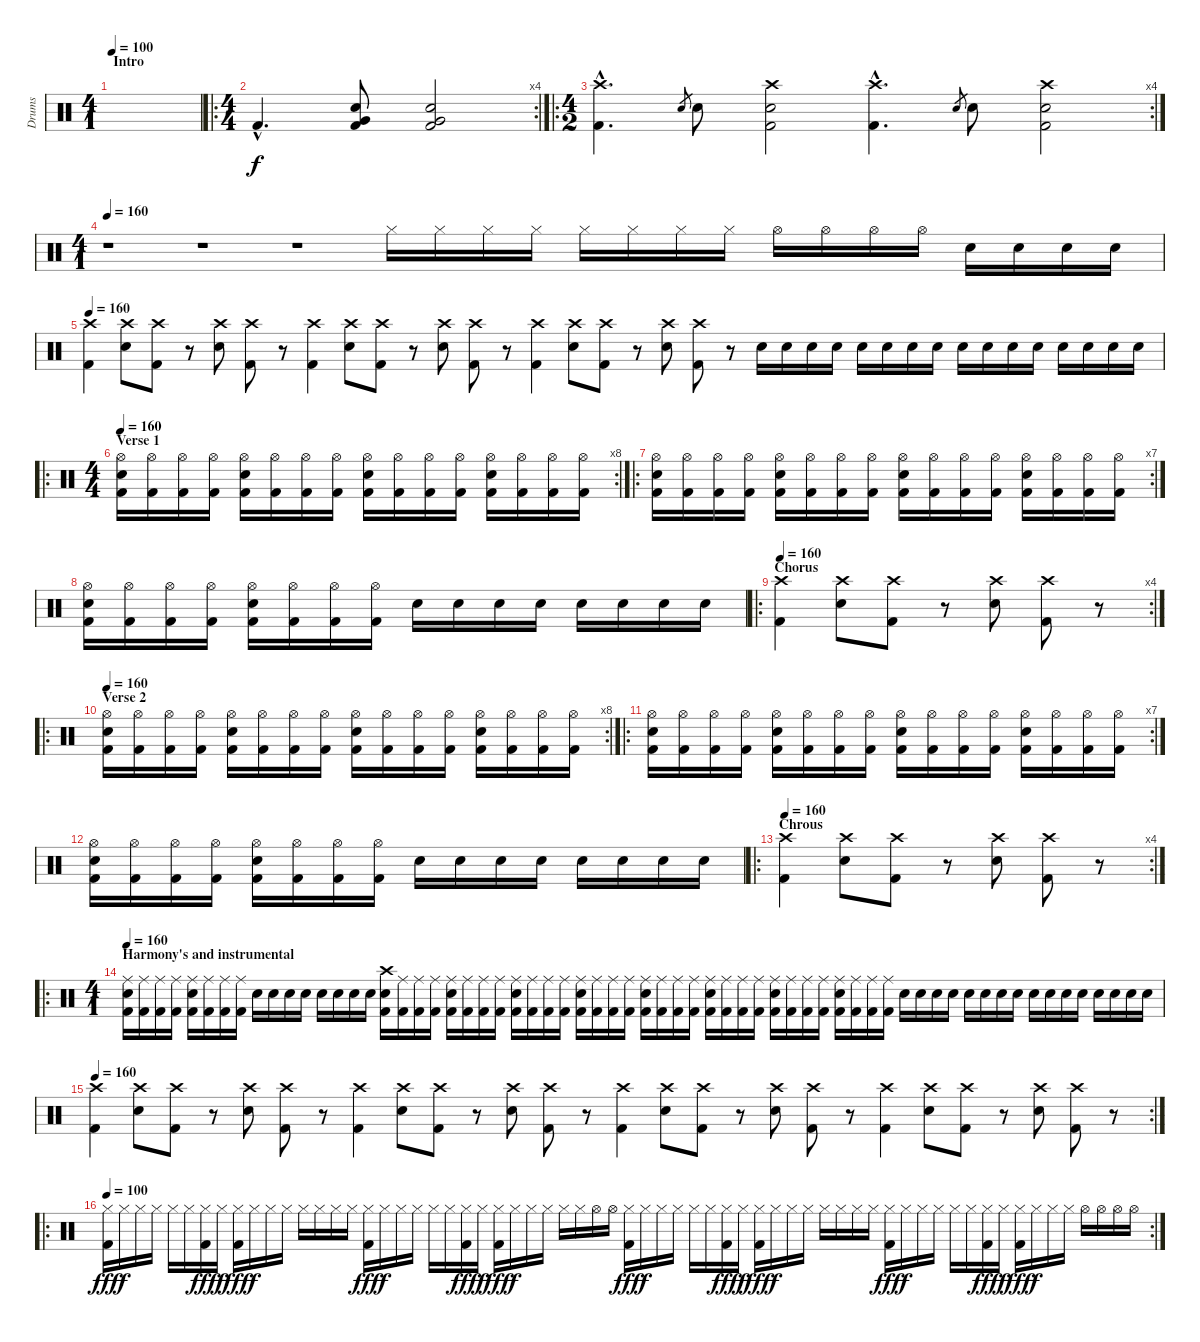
\track ("Drums" "Drums") {instrument percussion}
\staff {score}
\articulation defaults
\ts (4 1)
\section ("" "Intro")
\tempo 100
\clef neutral
\ks c
|
\ro
\rc 4
\ts (4 4)
"Kick (hit) 2"{hac}.4{d} ("Very Low Tom (hit)" "Electric Snare (hit)" "Kick (hit) 2").8 ("Very Low Tom (hit)" "Electric Snare (hit)" "Kick (hit) 2").2 |
\ro
\rc 4
\ts (4 2)
("Crash high (hit)"{hac} "Kick (hit) 2"{hac}).4{d} "Electric Snare (hit)".8{gr} "Electric Snare (hit)".8 ("Crash high (hit)" "Kick (hit) 2" "Electric Snare (hit)").2 ("Crash high (hit)"{hac} "Kick (hit) 2"{hac}).4{d} "Electric Snare (hit)".8{gr} "Electric Snare (hit)".8 ("Crash high (hit)" "Kick (hit) 2" "Electric Snare (hit)").2 |
\ts (4 1)
\tempo 160
r.1 r.1 r.1 "Hi-Hat (closed)".16 "Hi-Hat (closed)".16 "Hi-Hat (closed)".16 "Hi-Hat (closed)".16 "Hi-Hat (closed)".16 "Hi-Hat (closed)".16 "Hi-Hat (closed)".16 "Hi-Hat (closed)".16 "Hi-Hat (open)".16 "Hi-Hat (open)".16 "Hi-Hat (open)".16 "Hi-Hat (open)".16 "Electric Snare (hit)".16 "Electric Snare (hit)".16 "Electric Snare (hit)".16 "Electric Snare (hit)".16 |
\tempo 160
("Crash high (hit)" "Kick (hit) 2").4 ("Crash high (hit)" "Electric Snare (hit)").8 ("Crash high (hit)" "Kick (hit) 2").8 r.8 ("Crash high (hit)" "Electric Snare (hit)").8 ("Crash high (hit)" "Kick (hit) 2").8 r.8 ("Crash high (hit)" "Kick (hit) 2").4 ("Crash high (hit)" "Electric Snare (hit)").8 ("Crash high (hit)" "Kick (hit) 2").8 r.8 ("Crash high (hit)" "Electric Snare (hit)").8 ("Crash high (hit)" "Kick (hit) 2").8 r.8 ("Crash high (hit)" "Kick (hit) 2").4 ("Crash high (hit)" "Electric Snare (hit)").8 ("Crash high (hit)" "Kick (hit) 2").8 r.8 ("Crash high (hit)" "Electric Snare (hit)").8 ("Crash high (hit)" "Kick (hit) 2").8 r.8 "Electric Snare (hit)".16 "Electric Snare (hit)".16 "Electric Snare (hit)".16 "Electric Snare (hit)".16 "Electric Snare (hit)".16 "Electric Snare (hit)".16 "Electric Snare (hit)".16 "Electric Snare (hit)".16 "Electric Snare (hit)".16 "Electric Snare (hit)".16 "Electric Snare (hit)".16 "Electric Snare (hit)".16 "Electric Snare (hit)".16 "Electric Snare (hit)".16 "Electric Snare (hit)".16 "Electric Snare (hit)".16 |
\ro
\rc 8
\ts (4 4)
\section ("" "Verse 1")
\tempo 160
("Kick (hit) 2" "Hi-Hat (open)" "Electric Snare (hit)").16 ("Kick (hit) 2" "Hi-Hat (open)").16 ("Kick (hit) 2" "Hi-Hat (open)").16 ("Kick (hit) 2" "Hi-Hat (open)").16 ("Kick (hit) 2" "Hi-Hat (open)" "Electric Snare (hit)").16 ("Kick (hit) 2" "Hi-Hat (open)").16 ("Kick (hit) 2" "Hi-Hat (open)").16 ("Kick (hit) 2" "Hi-Hat (open)").16 ("Kick (hit) 2" "Hi-Hat (open)" "Electric Snare (hit)").16 ("Kick (hit) 2" "Hi-Hat (open)").16 ("Kick (hit) 2" "Hi-Hat (open)").16 ("Kick (hit) 2" "Hi-Hat (open)").16 ("Kick (hit) 2" "Hi-Hat (open)" "Electric Snare (hit)").16 ("Kick (hit) 2" "Hi-Hat (open)").16 ("Kick (hit) 2" "Hi-Hat (open)").16 ("Kick (hit) 2" "Hi-Hat (open)").16 |
\ro
\rc 7
("Kick (hit) 2" "Hi-Hat (open)" "Electric Snare (hit)").16 ("Kick (hit) 2" "Hi-Hat (open)").16 ("Kick (hit) 2" "Hi-Hat (open)").16 ("Kick (hit) 2" "Hi-Hat (open)").16 ("Kick (hit) 2" "Hi-Hat (open)" "Electric Snare (hit)").16 ("Kick (hit) 2" "Hi-Hat (open)").16 ("Kick (hit) 2" "Hi-Hat (open)").16 ("Kick (hit) 2" "Hi-Hat (open)").16 ("Kick (hit) 2" "Hi-Hat (open)" "Electric Snare (hit)").16 ("Kick (hit) 2" "Hi-Hat (open)").16 ("Kick (hit) 2" "Hi-Hat (open)").16 ("Kick (hit) 2" "Hi-Hat (open)").16 ("Kick (hit) 2" "Hi-Hat (open)" "Electric Snare (hit)").16 ("Kick (hit) 2" "Hi-Hat (open)").16 ("Kick (hit) 2" "Hi-Hat (open)").16 ("Kick (hit) 2" "Hi-Hat (open)").16 |
("Kick (hit) 2" "Hi-Hat (open)" "Electric Snare (hit)").16 ("Kick (hit) 2" "Hi-Hat (open)").16 ("Kick (hit) 2" "Hi-Hat (open)").16 ("Kick (hit) 2" "Hi-Hat (open)").16 ("Kick (hit) 2" "Hi-Hat (open)" "Electric Snare (hit)").16 ("Kick (hit) 2" "Hi-Hat (open)").16 ("Kick (hit) 2" "Hi-Hat (open)").16 ("Kick (hit) 2" "Hi-Hat (open)").16 "Electric Snare (hit)".16 "Electric Snare (hit)".16 "Electric Snare (hit)".16 "Electric Snare (hit)".16 "Electric Snare (hit)".16 "Electric Snare (hit)".16 "Electric Snare (hit)".16 "Electric Snare (hit)".16 |
\ro
\rc 4
\section ("" "Chorus ")
\tempo 160
("Crash high (hit)" "Kick (hit) 2").4 ("Crash high (hit)" "Electric Snare (hit)").8 ("Crash high (hit)" "Kick (hit) 2").8 r.8 ("Crash high (hit)" "Electric Snare (hit)").8 ("Crash high (hit)" "Kick (hit) 2").8 r.8 |
\ro
\rc 8
\section ("" "Verse 2")
\tempo 160
("Kick (hit) 2" "Hi-Hat (open)" "Electric Snare (hit)").16 ("Kick (hit) 2" "Hi-Hat (open)").16 ("Kick (hit) 2" "Hi-Hat (open)").16 ("Kick (hit) 2" "Hi-Hat (open)").16 ("Kick (hit) 2" "Hi-Hat (open)" "Electric Snare (hit)").16 ("Kick (hit) 2" "Hi-Hat (open)").16 ("Kick (hit) 2" "Hi-Hat (open)").16 ("Kick (hit) 2" "Hi-Hat (open)").16 ("Kick (hit) 2" "Hi-Hat (open)" "Electric Snare (hit)").16 ("Kick (hit) 2" "Hi-Hat (open)").16 ("Kick (hit) 2" "Hi-Hat (open)").16 ("Kick (hit) 2" "Hi-Hat (open)").16 ("Kick (hit) 2" "Hi-Hat (open)" "Electric Snare (hit)").16 ("Kick (hit) 2" "Hi-Hat (open)").16 ("Kick (hit) 2" "Hi-Hat (open)").16 ("Kick (hit) 2" "Hi-Hat (open)").16 |
\ro
\rc 7
("Kick (hit) 2" "Hi-Hat (open)" "Electric Snare (hit)").16 ("Kick (hit) 2" "Hi-Hat (open)").16 ("Kick (hit) 2" "Hi-Hat (open)").16 ("Kick (hit) 2" "Hi-Hat (open)").16 ("Kick (hit) 2" "Hi-Hat (open)" "Electric Snare (hit)").16 ("Kick (hit) 2" "Hi-Hat (open)").16 ("Kick (hit) 2" "Hi-Hat (open)").16 ("Kick (hit) 2" "Hi-Hat (open)").16 ("Kick (hit) 2" "Hi-Hat (open)" "Electric Snare (hit)").16 ("Kick (hit) 2" "Hi-Hat (open)").16 ("Kick (hit) 2" "Hi-Hat (open)").16 ("Kick (hit) 2" "Hi-Hat (open)").16 ("Kick (hit) 2" "Hi-Hat (open)" "Electric Snare (hit)").16 ("Kick (hit) 2" "Hi-Hat (open)").16 ("Kick (hit) 2" "Hi-Hat (open)").16 ("Kick (hit) 2" "Hi-Hat (open)").16 |
("Kick (hit) 2" "Hi-Hat (open)" "Electric Snare (hit)").16 ("Kick (hit) 2" "Hi-Hat (open)").16 ("Kick (hit) 2" "Hi-Hat (open)").16 ("Kick (hit) 2" "Hi-Hat (open)").16 ("Kick (hit) 2" "Hi-Hat (open)" "Electric Snare (hit)").16 ("Kick (hit) 2" "Hi-Hat (open)").16 ("Kick (hit) 2" "Hi-Hat (open)").16 ("Kick (hit) 2" "Hi-Hat (open)").16 "Electric Snare (hit)".16 "Electric Snare (hit)".16 "Electric Snare (hit)".16 "Electric Snare (hit)".16 "Electric Snare (hit)".16 "Electric Snare (hit)".16 "Electric Snare (hit)".16 "Electric Snare (hit)".16 |
\ro
\rc 4
\section ("" "Chrous")
\tempo 160
("Crash high (hit)" "Kick (hit) 2").4 ("Crash high (hit)" "Electric Snare (hit)").8 ("Crash high (hit)" "Kick (hit) 2").8 r.8 ("Crash high (hit)" "Electric Snare (hit)").8 ("Crash high (hit)" "Kick (hit) 2").8 r.8 |
\ro
\ts (4 1)
\section ("" "Harmony's and instrumental")
\tempo 160
("Kick (hit) 2" "Ride (middle)" "Electric Snare (hit)").16 ("Kick (hit) 2" "Ride (middle)").16 ("Kick (hit) 2" "Ride (middle)").16 ("Kick (hit) 2" "Ride (middle)").16 ("Kick (hit) 2" "Ride (middle)" "Electric Snare (hit)").16 ("Kick (hit) 2" "Ride (middle)").16 ("Kick (hit) 2" "Ride (middle)").16 ("Kick (hit) 2" "Ride (middle)").16 "Electric Snare (hit)".16 "Electric Snare (hit)".16 "Electric Snare (hit)".16 "Electric Snare (hit)".16 "Electric Snare (hit)".16 "Electric Snare (hit)".16 "Electric Snare (hit)".16 "Electric Snare (hit)".16 ("Crash high (hit)" "Kick (hit) 2" "Electric Snare (hit)").16 ("Ride (middle)" "Kick (hit) 2").16 ("Ride (middle)" "Kick (hit) 2").16 ("Ride (middle)" "Kick (hit) 2").16 ("Ride (middle)" "Kick (hit) 2" "Electric Snare (hit)").16 ("Ride (middle)" "Kick (hit) 2").16 ("Ride (middle)" "Kick (hit) 2").16 ("Ride (middle)" "Kick (hit) 2").16 ("Ride (middle)" "Kick (hit) 2" "Electric Snare (hit)").16 ("Ride (middle)" "Kick (hit) 2").16 ("Ride (middle)" "Kick (hit) 2").16 ("Ride (middle)" "Kick (hit) 2").16 ("Ride (middle)" "Kick (hit) 2" "Electric Snare (hit)").16 ("Ride (middle)" "Kick (hit) 2").16 ("Ride (middle)" "Kick (hit) 2").16 ("Ride (middle)" "Kick (hit) 2").16 ("Kick (hit) 2" "Ride (middle)" "Electric Snare (hit)").16 ("Kick (hit) 2" "Ride (middle)").16 ("Kick (hit) 2" "Ride (middle)").16 ("Kick (hit) 2" "Ride (middle)").16 ("Kick (hit) 2" "Ride (middle)" "Electric Snare (hit)").16 ("Kick (hit) 2" "Ride (middle)").16 ("Kick (hit) 2" "Ride (middle)").16 ("Kick (hit) 2" "Ride (middle)").16 ("Kick (hit) 2" "Ride (middle)" "Electric Snare (hit)").16 ("Kick (hit) 2" "Ride (middle)").16 ("Kick (hit) 2" "Ride (middle)").16 ("Kick (hit) 2" "Ride (middle)").16 ("Kick (hit) 2" "Ride (middle)" "Electric Snare (hit)").16 ("Kick (hit) 2" "Ride (middle)").16 ("Kick (hit) 2" "Ride (middle)").16 ("Kick (hit) 2" "Ride (middle)").16 "Electric Snare (hit)".16 "Electric Snare (hit)".16 "Electric Snare (hit)".16 "Electric Snare (hit)".16 "Electric Snare (hit)".16 "Electric Snare (hit)".16 "Electric Snare (hit)".16 "Electric Snare (hit)".16 "Electric Snare (hit)".16 "Electric Snare (hit)".16 "Electric Snare (hit)".16 "Electric Snare (hit)".16 "Electric Snare (hit)".16 "Electric Snare (hit)".16 "Electric Snare (hit)".16 "Electric Snare (hit)".16 |
\rc 2
\tempo 160
("Crash high (hit)" "Kick (hit) 2").4 ("Crash high (hit)" "Electric Snare (hit)").8 ("Crash high (hit)" "Kick (hit) 2").8 r.8 ("Crash high (hit)" "Electric Snare (hit)").8 ("Crash high (hit)" "Kick (hit) 2").8 r.8 ("Crash high (hit)" "Kick (hit) 2").4 ("Crash high (hit)" "Electric Snare (hit)").8 ("Crash high (hit)" "Kick (hit) 2").8 r.8 ("Crash high (hit)" "Electric Snare (hit)").8 ("Crash high (hit)" "Kick (hit) 2").8 r.8 ("Crash high (hit)" "Kick (hit) 2").4 ("Crash high (hit)" "Electric Snare (hit)").8 ("Crash high (hit)" "Kick (hit) 2").8 r.8 ("Crash high (hit)" "Electric Snare (hit)").8 ("Crash high (hit)" "Kick (hit) 2").8 r.8 ("Crash high (hit)" "Kick (hit) 2").4 ("Crash high (hit)" "Electric Snare (hit)").8 ("Crash high (hit)" "Kick (hit) 2").8 r.8 ("Crash high (hit)" "Electric Snare (hit)").8 ("Crash high (hit)" "Kick (hit) 2").8 r.8 |
\ro
\rc 2
\tempo 100
("Hi-Hat (closed)" "Kick (hit) 2").16{dy fff} "Hi-Hat (closed)".16{dy f} "Hi-Hat (closed)".16 "Hi-Hat (closed)".16 "Hi-Hat (closed)".16 "Hi-Hat (closed)".16 ("Hi-Hat (closed)" "Kick (hit) 2").16{dy fff} "Hi-Hat (closed)".16{dy f} ("Hi-Hat (closed)" "Kick (hit) 2").16{dy fff} "Hi-Hat (closed)".16{dy f} "Hi-Hat (closed)".16 "Hi-Hat (closed)".16 "Hi-Hat (closed)".16 "Hi-Hat (closed)".16 "Hi-Hat (closed)".16 "Hi-Hat (closed)".16 ("Hi-Hat (closed)" "Kick (hit) 2").16{dy fff} "Hi-Hat (closed)".16{dy f} "Hi-Hat (closed)".16 "Hi-Hat (closed)".16 "Hi-Hat (closed)".16 "Hi-Hat (closed)".16 ("Hi-Hat (closed)" "Kick (hit) 2").16{dy fff} "Hi-Hat (closed)".16{dy f} ("Hi-Hat (closed)" "Kick (hit) 2").16{dy fff} "Hi-Hat (closed)".16{dy f} "Hi-Hat (closed)".16 "Hi-Hat (closed)".16 "Hi-Hat (closed)".16 "Hi-Hat (closed)".16 "Hi-Hat (open)".16 "Hi-Hat (open)".16 ("Hi-Hat (closed)" "Kick (hit) 2").16{dy fff} "Hi-Hat (closed)".16{dy f} "Hi-Hat (closed)".16 "Hi-Hat (closed)".16 "Hi-Hat (closed)".16 "Hi-Hat (closed)".16 ("Hi-Hat (closed)" "Kick (hit) 2").16{dy fff} "Hi-Hat (closed)".16{dy f} ("Hi-Hat (closed)" "Kick (hit) 2").16{dy fff} "Hi-Hat (closed)".16{dy f} "Hi-Hat (closed)".16 "Hi-Hat (closed)".16 "Hi-Hat (closed)".16 "Hi-Hat (closed)".16 "Hi-Hat (closed)".16 "Hi-Hat (closed)".16 ("Hi-Hat (closed)" "Kick (hit) 2").16{dy fff} "Hi-Hat (closed)".16{dy f} "Hi-Hat (closed)".16 "Hi-Hat (closed)".16 "Hi-Hat (closed)".16 "Hi-Hat (closed)".16 ("Hi-Hat (closed)" "Kick (hit) 2").16{dy fff} "Hi-Hat (closed)".16{dy f} ("Hi-Hat (closed)" "Kick (hit) 2").16{dy fff} "Hi-Hat (closed)".16{dy f} "Hi-Hat (closed)".16 "Hi-Hat (closed)".16 "Hi-Hat (open)".16 "Hi-Hat (open)".16 "Hi-Hat (open)".16 "Hi-Hat (open)".16
